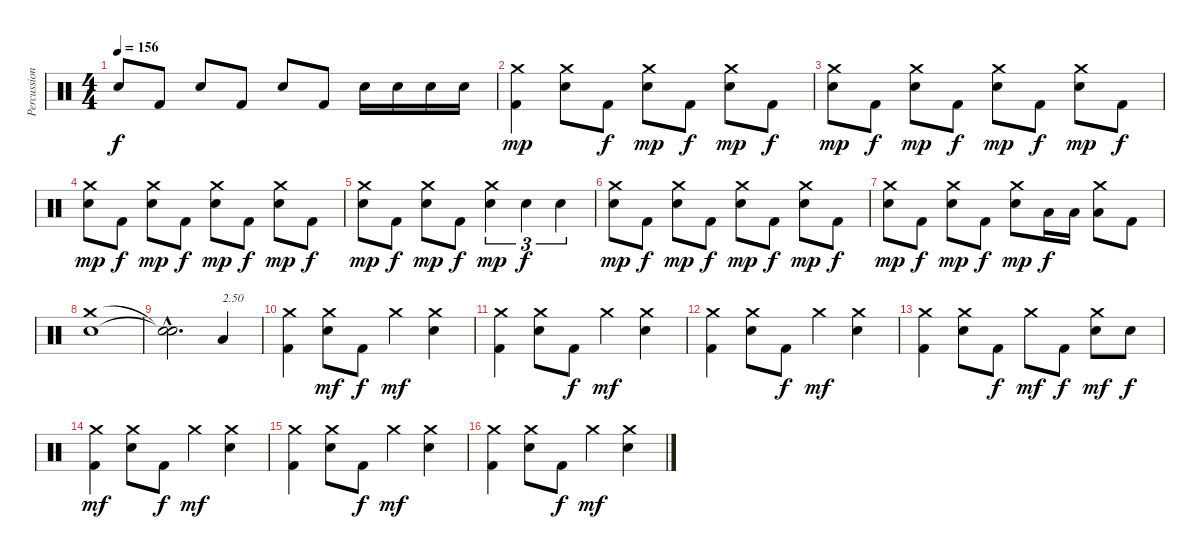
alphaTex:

\track ("Percussions" "Percussion") {instrument percussion}
\staff {score}
\articulation defaults
\ts (4 4)
\tempo 156
\clef neutral
\ks c "Electric Snare (hit)".8{dy f} "Kick (hit) 2".8 "Electric Snare (hit)".8 "Kick (hit) 2".8 "Electric Snare (hit)".8 "Kick (hit) 2".8 "Electric Snare (hit)".16 "Electric Snare (hit)".16 "Electric Snare (hit)".16 "Electric Snare (hit)".16
|
("Kick (hit) 2" "Crash medium (hit)").4{dy mp} ("Electric Snare (hit)" "Crash medium (hit)").8 "Kick (hit) 2".8{dy f} ("Electric Snare (hit)" "Crash medium (hit)").8{dy mp} "Kick (hit) 2".8{dy f} ("Electric Snare (hit)" "Crash medium (hit)").8{dy mp} "Kick (hit) 2".8{dy f} |
("Electric Snare (hit)" "Crash medium (hit)").8{dy mp} "Kick (hit) 2".8{dy f} ("Electric Snare (hit)" "Crash medium (hit)").8{dy mp} "Kick (hit) 2".8{dy f} ("Electric Snare (hit)" "Crash medium (hit)").8{dy mp} "Kick (hit) 2".8{dy f} ("Electric Snare (hit)" "Crash medium (hit)").8{dy mp} "Kick (hit) 2".8{dy f} |
("Electric Snare (hit)" "Crash medium (hit)").8{dy mp} "Kick (hit) 2".8{dy f} ("Electric Snare (hit)" "Crash medium (hit)").8{dy mp} "Kick (hit) 2".8{dy f} ("Electric Snare (hit)" "Crash medium (hit)").8{dy mp} "Kick (hit) 2".8{dy f} ("Electric Snare (hit)" "Crash medium (hit)").8{dy mp} "Kick (hit) 2".8{dy f} |
("Electric Snare (hit)" "Crash medium (hit)").8{dy mp} "Kick (hit) 2".8{dy f} ("Electric Snare (hit)" "Crash medium (hit)").8{dy mp} "Kick (hit) 2".8{dy f} ("Electric Snare (hit)" "Crash medium (hit)").4{tu (3 2) dy mp} "Electric Snare (hit)".4{tu (3 2) dy f} "Electric Snare (hit)".4{tu (3 2)} |
("Electric Snare (hit)" "Crash medium (hit)").8{dy mp} "Kick (hit) 2".8{dy f} ("Electric Snare (hit)" "Crash medium (hit)").8{dy mp} "Kick (hit) 2".8{dy f} ("Electric Snare (hit)" "Crash medium (hit)").8{dy mp} "Kick (hit) 2".8{dy f} ("Electric Snare (hit)" "Crash medium (hit)").8{dy mp} "Kick (hit) 2".8{dy f} |
("Electric Snare (hit)" "Crash medium (hit)").8{dy mp} "Kick (hit) 2".8{dy f} ("Electric Snare (hit)" "Crash medium (hit)").8{dy mp} "Kick (hit) 2".8{dy f} ("Electric Snare (hit)" "Crash medium (hit)").8{dy mp} "Low Floor Tom (hit)".16{dy f} "Low Floor Tom (hit)".16 ("Low Floor Tom (hit)" "Crash medium (hit)").8 "Kick (hit) 2".8 |
("Electric Snare (hit)" "Crash medium (hit)").1 |
("Snare (hit)"{hac t} "Snare (hit)"{hac t}).2{d} "Low Floor Tom (hit)".4{txt "2.50"} |
("Kick (hit) 2" "Crash medium (hit)").4 ("Electric Snare (hit)" "Crash medium (hit)").8{dy mf} "Kick (hit) 2".8{dy f} "Crash medium (hit)".4{dy mf} ("Electric Snare (hit)" "Crash medium (hit)").4 |
("Kick (hit) 2" "Crash medium (hit)").4 ("Electric Snare (hit)" "Crash medium (hit)").8 "Kick (hit) 2".8{dy f} "Crash medium (hit)".4{dy mf} ("Electric Snare (hit)" "Crash medium (hit)").4 |
("Kick (hit) 2" "Crash medium (hit)").4 ("Electric Snare (hit)" "Crash medium (hit)").8 "Kick (hit) 2".8{dy f} "Crash medium (hit)".4{dy mf} ("Electric Snare (hit)" "Crash medium (hit)").4 |
("Kick (hit) 2" "Crash medium (hit)").4 ("Electric Snare (hit)" "Crash medium (hit)").8 "Kick (hit) 2".8{dy f} "Crash medium (hit)".8{dy mf} "Kick (hit) 2".8{dy f} ("Electric Snare (hit)" "Crash medium (hit)").8{dy mf} "Electric Snare (hit)".8{dy f} |
("Kick (hit) 2" "Crash medium (hit)").4{dy mf} ("Electric Snare (hit)" "Crash medium (hit)").8 "Kick (hit) 2".8{dy f} "Crash medium (hit)".4{dy mf} ("Electric Snare (hit)" "Crash medium (hit)").4 |
("Kick (hit) 2" "Crash medium (hit)").4 ("Electric Snare (hit)" "Crash medium (hit)").8 "Kick (hit) 2".8{dy f} "Crash medium (hit)".4{dy mf} ("Electric Snare (hit)" "Crash medium (hit)").4 |
("Kick (hit) 2" "Crash medium (hit)").4 ("Electric Snare (hit)" "Crash medium (hit)").8 "Kick (hit) 2".8{dy f} "Crash medium (hit)".4{dy mf} ("Electric Snare (hit)" "Crash medium (hit)").4
